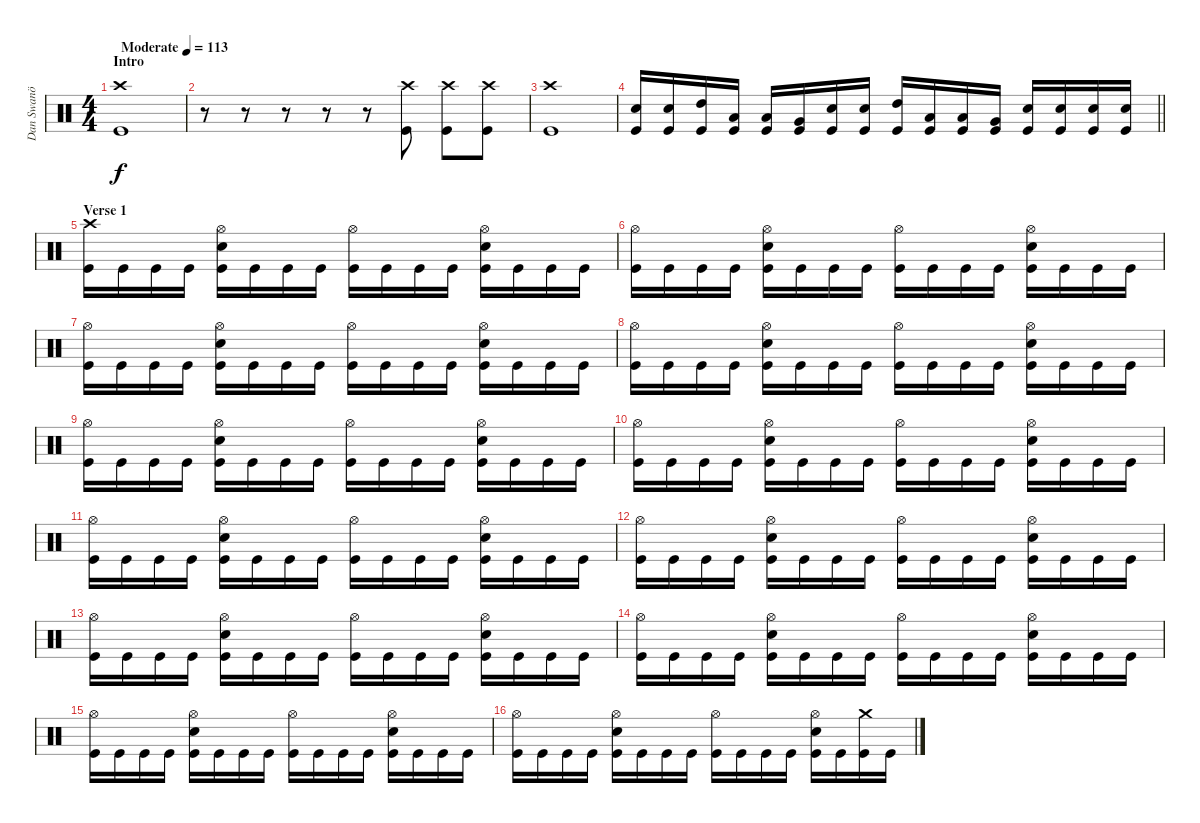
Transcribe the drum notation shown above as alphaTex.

\track ("Dan Swanö" "Dan Swanö") {instrument percussion}
\staff {score}
\articulation defaults
\ts (4 4)
\section ("" "Intro")
\tempo (113 "Moderate")
\clef neutral
\ks c
("Crash high (hit)" "Kick (hit)").1{dy f} |
r.8 r.8 r.8 r.8 r.8 ("Crash high (hit)" "Kick (hit)").8 ("Crash high (hit)" "Kick (hit)").8 ("Crash high (hit)" "Kick (hit)").8 |
("Crash high (hit)" "Kick (hit)").1 |
\barLineRight lightlight
("Snare (hit) 2" "Kick (hit)").16 ("Snare (hit) 2" "Kick (hit)").16 ("High Tom (hit)" "Kick (hit)").16 ("Low Tom (hit)" "Kick (hit)").16 ("Low Tom (hit)" "Kick (hit)").16 ("Very Low Tom (hit)" "Kick (hit)").16 ("Snare (hit) 2" "Kick (hit)").16 ("Snare (hit) 2" "Kick (hit)").16 ("High Tom (hit)" "Kick (hit)").16 ("Low Tom (hit)" "Kick (hit)").16 ("Low Tom (hit)" "Kick (hit)").16 ("Very Low Tom (hit)" "Kick (hit)").16 ("Snare (hit) 2" "Kick (hit)").16 ("Snare (hit) 2" "Kick (hit)").16 ("Snare (hit) 2" "Kick (hit)").16 ("Snare (hit) 2" "Kick (hit)").16 |
\section ("" "Verse 1")
("Crash high (hit)" "Kick (hit)").16 "Kick (hit)".16 "Kick (hit)".16 "Kick (hit)".16 ("Hi-Hat (open)" "Snare (hit) 2" "Kick (hit)").16 "Kick (hit)".16 "Kick (hit)".16 "Kick (hit)".16 ("Hi-Hat (open)" "Kick (hit)").16 "Kick (hit)".16 "Kick (hit)".16 "Kick (hit)".16 ("Hi-Hat (open)" "Snare (hit) 2" "Kick (hit)").16 "Kick (hit)".16 "Kick (hit)".16 "Kick (hit)".16 |
("Hi-Hat (open)" "Kick (hit)").16 "Kick (hit)".16 "Kick (hit)".16 "Kick (hit)".16 ("Hi-Hat (open)" "Snare (hit) 2" "Kick (hit)").16 "Kick (hit)".16 "Kick (hit)".16 "Kick (hit)".16 ("Hi-Hat (open)" "Kick (hit)").16 "Kick (hit)".16 "Kick (hit)".16 "Kick (hit)".16 ("Hi-Hat (open)" "Snare (hit) 2" "Kick (hit)").16 "Kick (hit)".16 "Kick (hit)".16 "Kick (hit)".16 |
("Hi-Hat (open)" "Kick (hit)").16 "Kick (hit)".16 "Kick (hit)".16 "Kick (hit)".16 ("Hi-Hat (open)" "Snare (hit) 2" "Kick (hit)").16 "Kick (hit)".16 "Kick (hit)".16 "Kick (hit)".16 ("Hi-Hat (open)" "Kick (hit)").16 "Kick (hit)".16 "Kick (hit)".16 "Kick (hit)".16 ("Hi-Hat (open)" "Snare (hit) 2" "Kick (hit)").16 "Kick (hit)".16 "Kick (hit)".16 "Kick (hit)".16 |
("Hi-Hat (open)" "Kick (hit)").16 "Kick (hit)".16 "Kick (hit)".16 "Kick (hit)".16 ("Hi-Hat (open)" "Snare (hit) 2" "Kick (hit)").16 "Kick (hit)".16 "Kick (hit)".16 "Kick (hit)".16 ("Hi-Hat (open)" "Kick (hit)").16 "Kick (hit)".16 "Kick (hit)".16 "Kick (hit)".16 ("Hi-Hat (open)" "Snare (hit) 2" "Kick (hit)").16 "Kick (hit)".16 "Kick (hit)".16 "Kick (hit)".16 |
("Hi-Hat (open)" "Kick (hit)").16 "Kick (hit)".16 "Kick (hit)".16 "Kick (hit)".16 ("Hi-Hat (open)" "Snare (hit) 2" "Kick (hit)").16 "Kick (hit)".16 "Kick (hit)".16 "Kick (hit)".16 ("Hi-Hat (open)" "Kick (hit)").16 "Kick (hit)".16 "Kick (hit)".16 "Kick (hit)".16 ("Hi-Hat (open)" "Snare (hit) 2" "Kick (hit)").16 "Kick (hit)".16 "Kick (hit)".16 "Kick (hit)".16 |
("Hi-Hat (open)" "Kick (hit)").16 "Kick (hit)".16 "Kick (hit)".16 "Kick (hit)".16 ("Hi-Hat (open)" "Snare (hit) 2" "Kick (hit)").16 "Kick (hit)".16 "Kick (hit)".16 "Kick (hit)".16 ("Hi-Hat (open)" "Kick (hit)").16 "Kick (hit)".16 "Kick (hit)".16 "Kick (hit)".16 ("Hi-Hat (open)" "Snare (hit) 2" "Kick (hit)").16 "Kick (hit)".16 "Kick (hit)".16 "Kick (hit)".16 |
("Hi-Hat (open)" "Kick (hit)").16 "Kick (hit)".16 "Kick (hit)".16 "Kick (hit)".16 ("Hi-Hat (open)" "Snare (hit) 2" "Kick (hit)").16 "Kick (hit)".16 "Kick (hit)".16 "Kick (hit)".16 ("Hi-Hat (open)" "Kick (hit)").16 "Kick (hit)".16 "Kick (hit)".16 "Kick (hit)".16 ("Hi-Hat (open)" "Snare (hit) 2" "Kick (hit)").16 "Kick (hit)".16 "Kick (hit)".16 "Kick (hit)".16 |
("Hi-Hat (open)" "Kick (hit)").16 "Kick (hit)".16 "Kick (hit)".16 "Kick (hit)".16 ("Hi-Hat (open)" "Snare (hit) 2" "Kick (hit)").16 "Kick (hit)".16 "Kick (hit)".16 "Kick (hit)".16 ("Hi-Hat (open)" "Kick (hit)").16 "Kick (hit)".16 "Kick (hit)".16 "Kick (hit)".16 ("Hi-Hat (open)" "Snare (hit) 2" "Kick (hit)").16 "Kick (hit)".16 "Kick (hit)".16 "Kick (hit)".16 |
("Hi-Hat (open)" "Kick (hit)").16 "Kick (hit)".16 "Kick (hit)".16 "Kick (hit)".16 ("Hi-Hat (open)" "Snare (hit) 2" "Kick (hit)").16 "Kick (hit)".16 "Kick (hit)".16 "Kick (hit)".16 ("Hi-Hat (open)" "Kick (hit)").16 "Kick (hit)".16 "Kick (hit)".16 "Kick (hit)".16 ("Hi-Hat (open)" "Snare (hit) 2" "Kick (hit)").16 "Kick (hit)".16 "Kick (hit)".16 "Kick (hit)".16 |
("Hi-Hat (open)" "Kick (hit)").16 "Kick (hit)".16 "Kick (hit)".16 "Kick (hit)".16 ("Hi-Hat (open)" "Snare (hit) 2" "Kick (hit)").16 "Kick (hit)".16 "Kick (hit)".16 "Kick (hit)".16 ("Hi-Hat (open)" "Kick (hit)").16 "Kick (hit)".16 "Kick (hit)".16 "Kick (hit)".16 ("Hi-Hat (open)" "Snare (hit) 2" "Kick (hit)").16 "Kick (hit)".16 "Kick (hit)".16 "Kick (hit)".16 |
("Hi-Hat (open)" "Kick (hit)").16 "Kick (hit)".16 "Kick (hit)".16 "Kick (hit)".16 ("Hi-Hat (open)" "Snare (hit) 2" "Kick (hit)").16 "Kick (hit)".16 "Kick (hit)".16 "Kick (hit)".16 ("Hi-Hat (open)" "Kick (hit)").16 "Kick (hit)".16 "Kick (hit)".16 "Kick (hit)".16 ("Hi-Hat (open)" "Snare (hit) 2" "Kick (hit)").16 "Kick (hit)".16 "Kick (hit)".16 "Kick (hit)".16 |
("Hi-Hat (open)" "Kick (hit)").16 "Kick (hit)".16 "Kick (hit)".16 "Kick (hit)".16 ("Hi-Hat (open)" "Snare (hit) 2" "Kick (hit)").16 "Kick (hit)".16 "Kick (hit)".16 "Kick (hit)".16 ("Hi-Hat (open)" "Kick (hit)").16 "Kick (hit)".16 "Kick (hit)".16 "Kick (hit)".16 ("Hi-Hat (open)" "Snare (hit) 2" "Kick (hit)").16 "Kick (hit)".16 ("Crash medium (hit)" "Kick (hit)").16 "Kick (hit)".16
